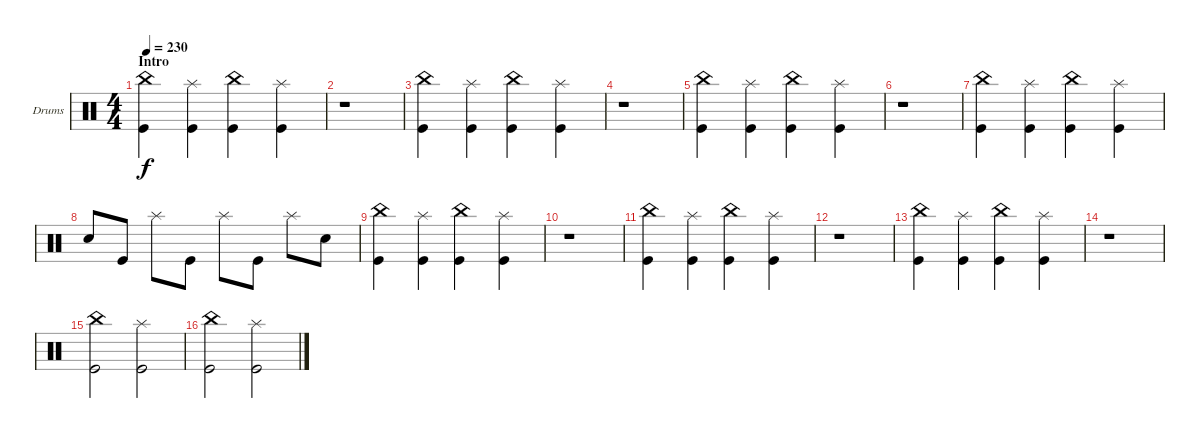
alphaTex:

\defaultSystemsLayout 4
\bracketExtendMode groupsimilarinstruments
\firstSystemTrackNameOrientation horizontal
\otherSystemsTrackNameOrientation horizontal
\track ("Drumkit" "Drums") {instrument percussion}
\staff {score}
\articulation defaults
\ts (4 4)
\section ("" "Intro")
\tempo 230
\clef neutral
\ks c
("Kick (hit)" "China (hit)").4{dy f} ("Kick (hit)" "Splash (hit)").4 ("Kick (hit)" "China (hit)").4 ("Kick (hit)" "Splash (hit)").4 |
r.1 |
("Kick (hit)" "China (hit)").4 ("Kick (hit)" "Splash (hit)").4 ("Kick (hit)" "China (hit)").4 ("Kick (hit)" "Splash (hit)").4 |
r.1 |
("Kick (hit)" "China (hit)").4 ("Kick (hit)" "Splash (hit)").4 ("Kick (hit)" "China (hit)").4 ("Kick (hit)" "Splash (hit)").4 |
r.1 |
("Kick (hit)" "China (hit)").4 ("Kick (hit)" "Splash (hit)").4 ("Kick (hit)" "China (hit)").4 ("Kick (hit)" "Splash (hit)").4 |
"Snare (hit) 2".8 "Kick (hit)".8 "Splash (hit)".8 "Kick (hit)".8 "Splash (hit)".8 "Kick (hit)".8 "Splash (hit)".8 "Snare (hit) 2".8 |
("Kick (hit)" "China (hit)").4 ("Kick (hit)" "Splash (hit)").4 ("Kick (hit)" "China (hit)").4 ("Kick (hit)" "Splash (hit)").4 |
r.1 |
("Kick (hit)" "China (hit)").4 ("Kick (hit)" "Splash (hit)").4 ("Kick (hit)" "China (hit)").4 ("Kick (hit)" "Splash (hit)").4 |
r.1 |
("Kick (hit)" "China (hit)").4 ("Kick (hit)" "Splash (hit)").4 ("Kick (hit)" "China (hit)").4 ("Kick (hit)" "Splash (hit)").4 |
r.1 |
("Kick (hit)" "China (hit)").2 ("Kick (hit)" "Splash (hit)").2 |
("Kick (hit)" "China (hit)").2 ("Kick (hit)" "Splash (hit)").2
